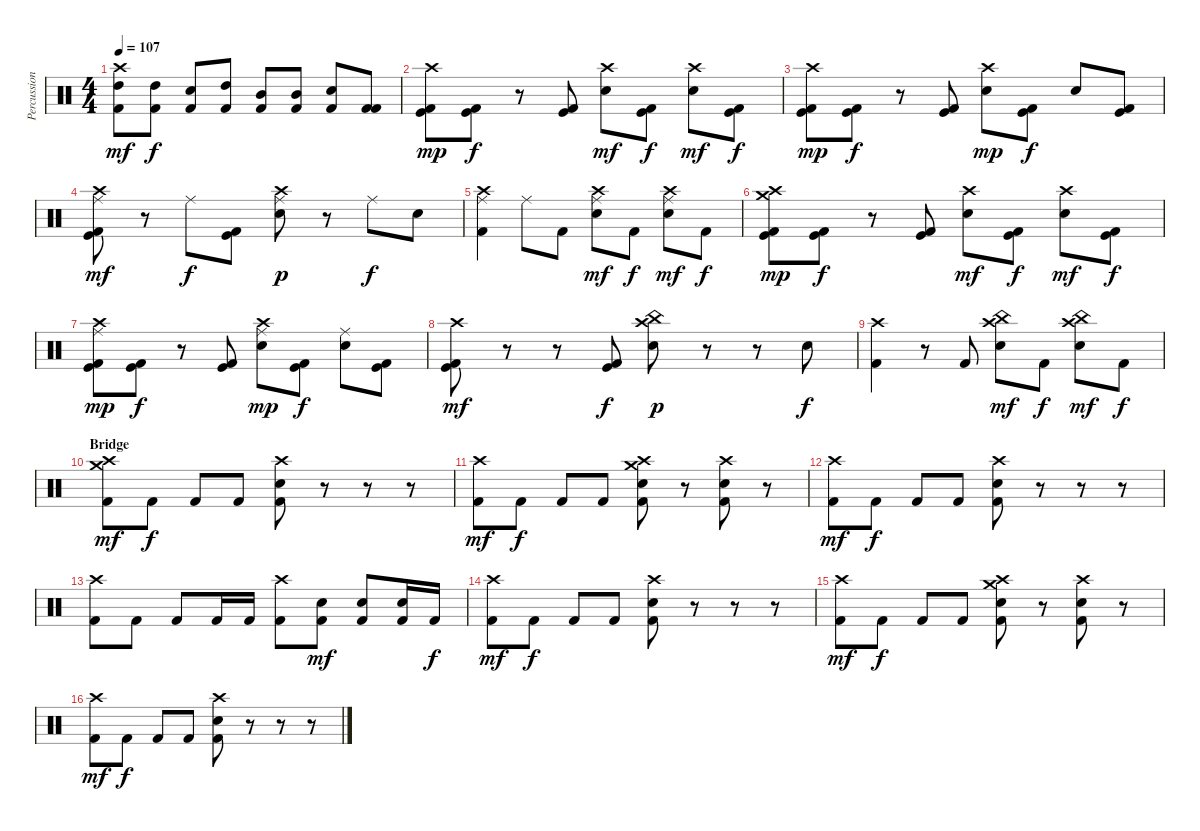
\track ("Percussion" "Percussion") {instrument percussion}
\staff {score}
\articulation defaults
\ts (4 4)
\tempo 107
\clef neutral
\ks c
("Crash high (hit)" "Kick (hit) 2" "High Tom (hit)").8{dy mf} ("Kick (hit) 2" "High Tom (hit)").8{dy f} ("Kick (hit) 2" "Electric Snare (hit)").8 ("Kick (hit) 2" "High Tom (hit)").8 ("Kick (hit) 2" "Mid Tom (hit)").8 ("Kick (hit) 2" "Mid Tom (hit)").8 ("Kick (hit) 2" "Electric Snare (hit)").8 ("Kick (hit) 2" "Kick (hit) 2").8 |
("Crash high (hit)" "Kick (hit)" "Kick (hit) 2").8{dy mp} ("Kick (hit)" "Kick (hit) 2").8{dy f} r.8 ("Kick (hit)" "Kick (hit) 2").8 ("Crash high (hit)" "Electric Snare (hit)").8{dy mf} ("Kick (hit)" "Kick (hit) 2").8{dy f} ("Crash high (hit)" "Electric Snare (hit)").8{dy mf} ("Kick (hit)" "Kick (hit) 2").8{dy f} |
("Crash high (hit)" "Kick (hit)" "Kick (hit) 2").8{dy mp} ("Kick (hit)" "Kick (hit) 2").8{dy f} r.8 ("Kick (hit)" "Kick (hit) 2").8 ("Crash high (hit)" "Electric Snare (hit)").8{dy mp} ("Kick (hit)" "Kick (hit) 2").8{dy f} "Electric Snare (hit)".8 ("Kick (hit)" "Kick (hit) 2").8 |
("Ride (middle)" "Crash high (hit)" "Kick (hit)" "Kick (hit) 2").8{dy mf} r.8 "Ride (middle)".8{dy f} ("Kick (hit)" "Kick (hit) 2").8 ("Ride (middle)" "Crash high (hit)" "Electric Snare (hit)").8{dy p} r.8 "Ride (middle)".8{dy f} "Electric Snare (hit)".8 |
("Crash high (hit)" "Ride (middle)" "Kick (hit) 2").4 "Ride (middle)".8 "Kick (hit) 2".8 ("Crash high (hit)" "Electric Snare (hit)" "Ride (middle)").8{dy mf} "Kick (hit) 2".8{dy f} ("Crash high (hit)" "Electric Snare (hit)" "Ride (middle)").8{dy mf} "Kick (hit) 2".8{dy f} |
("Crash high (hit)" "Crash medium (hit)" "Kick (hit)" "Kick (hit) 2").8{dy mp} ("Kick (hit)" "Kick (hit) 2").8{dy f} r.8 ("Kick (hit)" "Kick (hit) 2").8 ("Crash high (hit)" "Electric Snare (hit)").8{dy mf} ("Kick (hit)" "Kick (hit) 2").8{dy f} ("Crash high (hit)" "Electric Snare (hit)").8{dy mf} ("Kick (hit)" "Kick (hit) 2").8{dy f} |
("Crash high (hit)" "Ride (middle)" "Kick (hit)" "Kick (hit) 2").8{dy mp} ("Kick (hit)" "Kick (hit) 2").8{dy f} r.8 ("Kick (hit)" "Kick (hit) 2").8 ("Crash high (hit)" "Ride (middle)" "Electric Snare (hit)").8{dy mp} ("Kick (hit)" "Kick (hit) 2").8{dy f} ("Ride (middle)" "Electric Snare (hit)").8 ("Kick (hit)" "Kick (hit) 2").8 |
("Crash high (hit)" "Kick (hit)" "Kick (hit) 2").8{dy mf} r.8 r.8 ("Kick (hit)" "Kick (hit) 2").8{dy f} ("China (hit)" "Crash high (hit)" "Electric Snare (hit)").8{dy p} r.8 r.8 "Electric Snare (hit)".8{dy f} |
("Crash high (hit)" "Kick (hit) 2").4 r.8 "Kick (hit) 2".8 ("Crash high (hit)" "Electric Snare (hit)" "China (hit)").8{dy mf} "Kick (hit) 2".8{dy f} ("Crash high (hit)" "Electric Snare (hit)" "China (hit)").8{dy mf} "Kick (hit) 2".8{dy f} |
\section ("" "Bridge")
("Crash high (hit)" "Crash medium (hit)" "Kick (hit) 2").8{dy mf} "Kick (hit) 2".8{dy f} "Kick (hit) 2".8 "Kick (hit) 2".8 ("Electric Snare (hit)" "Crash high (hit)" "Kick (hit) 2").8 r.8 r.8 r.8 |
("Crash high (hit)" "Kick (hit) 2").8{dy mf} "Kick (hit) 2".8{dy f} "Kick (hit) 2".8 "Kick (hit) 2".8 ("Electric Snare (hit)" "Crash high (hit)" "Kick (hit) 2" "Crash medium (hit)").8 r.8 ("Electric Snare (hit)" "Crash high (hit)" "Kick (hit) 2").8 r.8 |
("Crash high (hit)" "Kick (hit) 2").8{dy mf} "Kick (hit) 2".8{dy f} "Kick (hit) 2".8 "Kick (hit) 2".8 ("Electric Snare (hit)" "Crash high (hit)" "Kick (hit) 2").8 r.8 r.8 r.8 |
("Crash high (hit)" "Kick (hit) 2").8 "Kick (hit) 2".8 "Kick (hit) 2".8 "Kick (hit) 2".16 "Kick (hit) 2".16 ("Crash high (hit)" "Kick (hit) 2").8 ("Electric Snare (hit)" "Kick (hit) 2").8{dy mf} ("Electric Snare (hit)" "Kick (hit) 2").8 ("Electric Snare (hit)" "Kick (hit) 2").16 "Kick (hit) 2".16{dy f} |
("Crash high (hit)" "Kick (hit) 2").8{dy mf} "Kick (hit) 2".8{dy f} "Kick (hit) 2".8 "Kick (hit) 2".8 ("Electric Snare (hit)" "Crash high (hit)" "Kick (hit) 2").8 r.8 r.8 r.8 |
("Crash high (hit)" "Kick (hit) 2").8{dy mf} "Kick (hit) 2".8{dy f} "Kick (hit) 2".8 "Kick (hit) 2".8 ("Electric Snare (hit)" "Crash high (hit)" "Kick (hit) 2" "Crash medium (hit)").8 r.8 ("Electric Snare (hit)" "Crash high (hit)" "Kick (hit) 2").8 r.8 |
("Crash high (hit)" "Kick (hit) 2").8{dy mf} "Kick (hit) 2".8{dy f} "Kick (hit) 2".8 "Kick (hit) 2".8 ("Electric Snare (hit)" "Crash high (hit)" "Kick (hit) 2").8 r.8 r.8 r.8
